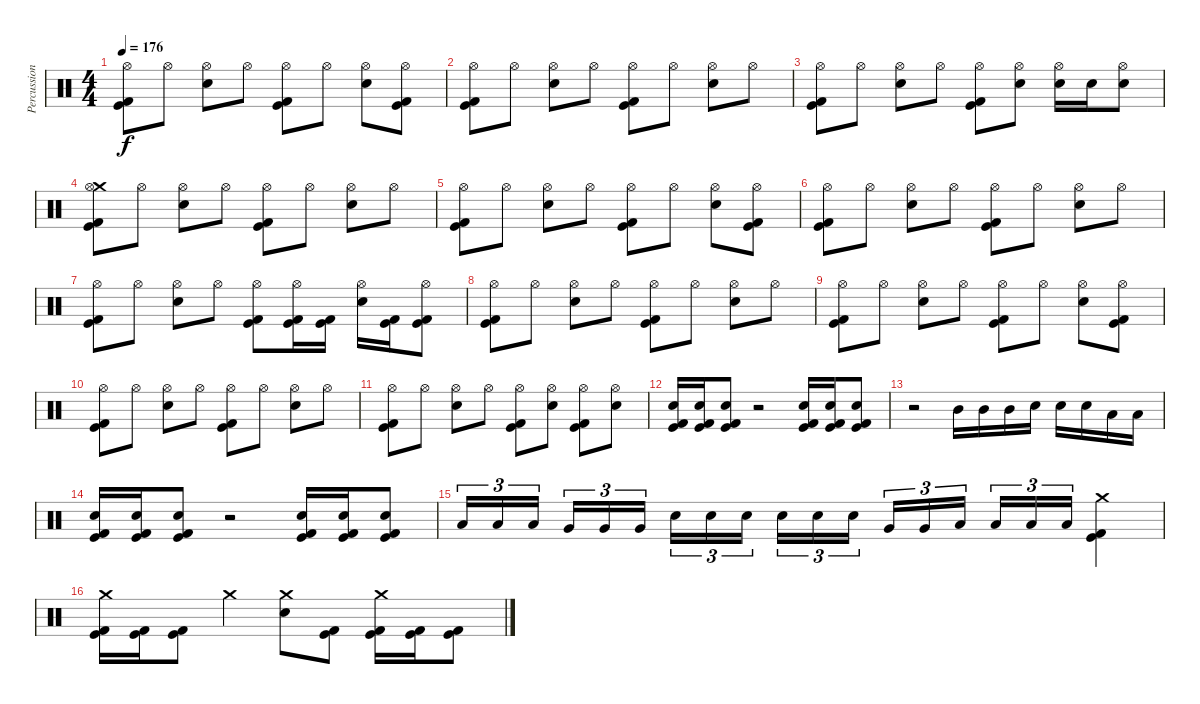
\track ("Percussions" "Percussion") {instrument percussion}
\staff {score}
\articulation defaults
\ts (4 4)
\tempo 176
\clef neutral
\ks c
("Hi-Hat (open)" "Kick (hit)" "Kick (hit) 2").8{dy f} "Hi-Hat (open)".8 ("Hi-Hat (open)" "Electric Snare (hit)").8 "Hi-Hat (open)".8 ("Hi-Hat (open)" "Kick (hit)" "Kick (hit) 2").8 "Hi-Hat (open)".8 ("Hi-Hat (open)" "Electric Snare (hit)").8 ("Hi-Hat (open)" "Kick (hit)" "Kick (hit) 2").8 |
("Hi-Hat (open)" "Kick (hit)" "Kick (hit) 2").8 "Hi-Hat (open)".8 ("Hi-Hat (open)" "Electric Snare (hit)").8 "Hi-Hat (open)".8 ("Hi-Hat (open)" "Kick (hit)" "Kick (hit) 2").8 "Hi-Hat (open)".8 ("Hi-Hat (open)" "Electric Snare (hit)").8 "Hi-Hat (open)".8 |
("Hi-Hat (open)" "Kick (hit)" "Kick (hit) 2").8 "Hi-Hat (open)".8 ("Hi-Hat (open)" "Electric Snare (hit)").8 "Hi-Hat (open)".8 ("Hi-Hat (open)" "Kick (hit)" "Kick (hit) 2").8 ("Hi-Hat (open)" "Electric Snare (hit)").8 ("Hi-Hat (open)" "Electric Snare (hit)").16 "Electric Snare (hit)".16 ("Hi-Hat (open)" "Electric Snare (hit)").8 |
("Crash medium (hit)" "Hi-Hat (open)" "Kick (hit)" "Kick (hit) 2").8 "Hi-Hat (open)".8 ("Hi-Hat (open)" "Electric Snare (hit)").8 "Hi-Hat (open)".8 ("Hi-Hat (open)" "Kick (hit)" "Kick (hit) 2").8 "Hi-Hat (open)".8 ("Hi-Hat (open)" "Electric Snare (hit)").8 "Hi-Hat (open)".8 |
("Hi-Hat (open)" "Kick (hit)" "Kick (hit) 2").8 "Hi-Hat (open)".8 ("Hi-Hat (open)" "Electric Snare (hit)").8 "Hi-Hat (open)".8 ("Hi-Hat (open)" "Kick (hit)" "Kick (hit) 2").8 "Hi-Hat (open)".8 ("Hi-Hat (open)" "Electric Snare (hit)").8 ("Hi-Hat (open)" "Kick (hit)" "Kick (hit) 2").8 |
("Hi-Hat (open)" "Kick (hit)" "Kick (hit) 2").8 "Hi-Hat (open)".8 ("Hi-Hat (open)" "Electric Snare (hit)").8 "Hi-Hat (open)".8 ("Hi-Hat (open)" "Kick (hit)" "Kick (hit) 2").8 "Hi-Hat (open)".8 ("Hi-Hat (open)" "Electric Snare (hit)").8 "Hi-Hat (open)".8 |
("Hi-Hat (open)" "Kick (hit)" "Kick (hit) 2").8 "Hi-Hat (open)".8 ("Hi-Hat (open)" "Electric Snare (hit)").8 "Hi-Hat (open)".8 ("Hi-Hat (open)" "Kick (hit)" "Kick (hit) 2").8 ("Hi-Hat (open)" "Kick (hit)" "Kick (hit) 2").16 ("Kick (hit)" "Kick (hit) 2").16 ("Hi-Hat (open)" "Electric Snare (hit)").16 ("Kick (hit)" "Kick (hit) 2").16 ("Hi-Hat (open)" "Kick (hit)" "Kick (hit) 2").8 |
("Hi-Hat (open)" "Kick (hit)" "Kick (hit) 2").8 "Hi-Hat (open)".8 ("Hi-Hat (open)" "Electric Snare (hit)").8 "Hi-Hat (open)".8 ("Hi-Hat (open)" "Kick (hit)" "Kick (hit) 2").8 "Hi-Hat (open)".8 ("Hi-Hat (open)" "Electric Snare (hit)").8 "Hi-Hat (open)".8 |
("Hi-Hat (open)" "Kick (hit)" "Kick (hit) 2").8 "Hi-Hat (open)".8 ("Hi-Hat (open)" "Electric Snare (hit)").8 "Hi-Hat (open)".8 ("Hi-Hat (open)" "Kick (hit)" "Kick (hit) 2").8 "Hi-Hat (open)".8 ("Hi-Hat (open)" "Electric Snare (hit)").8 ("Hi-Hat (open)" "Kick (hit)" "Kick (hit) 2").8 |
("Hi-Hat (open)" "Kick (hit)" "Kick (hit) 2").8 "Hi-Hat (open)".8 ("Hi-Hat (open)" "Electric Snare (hit)").8 "Hi-Hat (open)".8 ("Hi-Hat (open)" "Kick (hit)" "Kick (hit) 2").8 "Hi-Hat (open)".8 ("Hi-Hat (open)" "Electric Snare (hit)").8 "Hi-Hat (open)".8 |
("Hi-Hat (open)" "Kick (hit)" "Kick (hit) 2").8 "Hi-Hat (open)".8 ("Hi-Hat (open)" "Electric Snare (hit)").8 "Hi-Hat (open)".8 ("Hi-Hat (open)" "Kick (hit)" "Kick (hit) 2").8 ("Hi-Hat (open)" "Electric Snare (hit)").8 ("Hi-Hat (open)" "Kick (hit)" "Kick (hit) 2").8 ("Hi-Hat (open)" "Electric Snare (hit)").8 |
("Electric Snare (hit)" "Kick (hit)" "Kick (hit) 2").16 ("Electric Snare (hit)" "Kick (hit)" "Kick (hit) 2").16 ("Electric Snare (hit)" "Kick (hit)" "Kick (hit) 2").8 r.2 ("Electric Snare (hit)" "Kick (hit)" "Kick (hit) 2").16 ("Electric Snare (hit)" "Kick (hit)" "Kick (hit) 2").16 ("Electric Snare (hit)" "Kick (hit)" "Kick (hit) 2").8 |
r.2 "Mid Tom (hit)".16 "Mid Tom (hit)".16 "Mid Tom (hit)".16 "Electric Snare (hit)".16 "Electric Snare (hit)".16 "Electric Snare (hit)".16 "Low Tom (hit)".16 "Low Tom (hit)".16 |
("Electric Snare (hit)" "Kick (hit)" "Kick (hit) 2").16 ("Electric Snare (hit)" "Kick (hit)" "Kick (hit) 2").16 ("Electric Snare (hit)" "Kick (hit)" "Kick (hit) 2").8 r.2 ("Electric Snare (hit)" "Kick (hit)" "Kick (hit) 2").16 ("Electric Snare (hit)" "Kick (hit)" "Kick (hit) 2").16 ("Electric Snare (hit)" "Kick (hit)" "Kick (hit) 2").8 |
"Low Tom (hit)".16{tu (3 2)} "Low Tom (hit)".16{tu (3 2)} "Low Tom (hit)".16{tu (3 2) beam splitsecondary} "Very Low Tom (hit)".16{tu (3 2)} "Very Low Tom (hit)".16{tu (3 2)} "Very Low Tom (hit)".16{tu (3 2)} "Electric Snare (hit)".16{tu (3 2)} "Electric Snare (hit)".16{tu (3 2)} "Electric Snare (hit)".16{tu (3 2) beam splitsecondary} "Electric Snare (hit)".16{tu (3 2)} "Electric Snare (hit)".16{tu (3 2)} "Electric Snare (hit)".16{tu (3 2)} "Very Low Tom (hit)".16{tu (3 2)} "Very Low Tom (hit)".16{tu (3 2)} "Low Tom (hit)".16{tu (3 2) beam splitsecondary} "Low Floor Tom (hit)".16{tu (3 2)} "Low Floor Tom (hit)".16{tu (3 2)} "Low Floor Tom (hit)".16{tu (3 2)} ("Crash medium (hit)" "Kick (hit)" "Kick (hit) 2").4 |
("Crash medium (hit)" "Kick (hit)" "Kick (hit) 2").16 ("Kick (hit)" "Kick (hit) 2").16 ("Kick (hit)" "Kick (hit) 2").8 "Crash medium (hit)".4 ("Crash medium (hit)" "Electric Snare (hit)").8 ("Kick (hit)" "Kick (hit) 2").8 ("Crash medium (hit)" "Kick (hit)" "Kick (hit) 2").16 ("Kick (hit)" "Kick (hit) 2").16 ("Kick (hit)" "Kick (hit) 2").8
